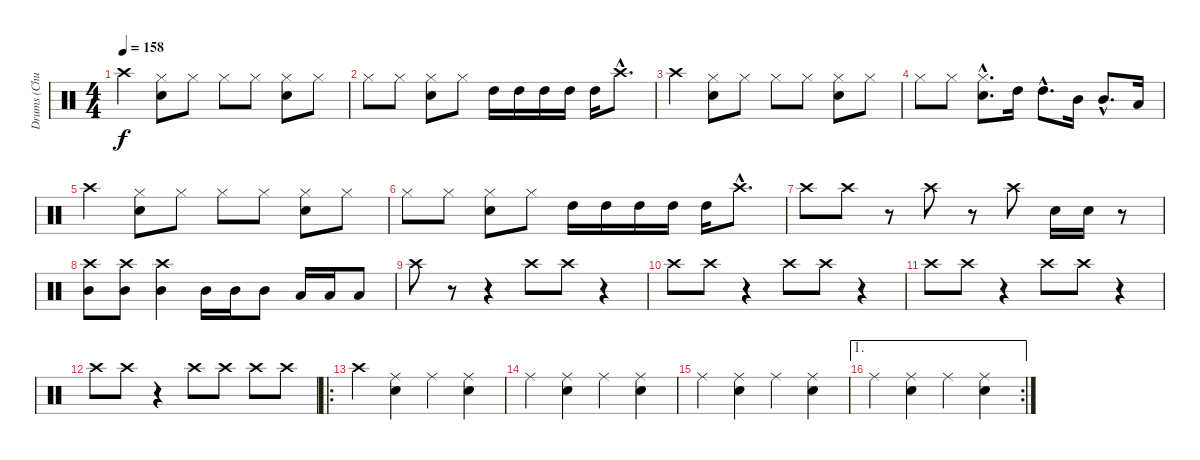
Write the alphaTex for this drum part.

\track ("Drums (Chuck Behler)" "Drums (Chu") {instrument percussion}
\staff {score}
\articulation defaults
\ts (4 4)
\tempo 158
\clef neutral
\ks c "Crash high (hit)".4{dy f}
("Hi-Hat (closed)" "Snare (hit) 2").8 "Hi-Hat (closed)".8 "Hi-Hat (closed)".8 "Hi-Hat (closed)".8 ("Hi-Hat (closed)" "Snare (hit) 2").8 "Hi-Hat (closed)".8 |
"Hi-Hat (closed)".8 "Hi-Hat (closed)".8 ("Hi-Hat (closed)" "Snare (hit) 2").8 "Hi-Hat (closed)".8 "High Tom (hit)".16 "High Tom (hit)".16 "High Tom (hit)".16 "High Tom (hit)".16 "High Tom (hit)".16 "Crash high (hit)"{hac}.8{d} |
"Crash high (hit)".4 ("Hi-Hat (closed)" "Snare (hit) 2").8 "Hi-Hat (closed)".8 "Hi-Hat (closed)".8 "Hi-Hat (closed)".8 ("Hi-Hat (closed)" "Snare (hit) 2").8 "Hi-Hat (closed)".8 |
"Hi-Hat (closed)".8 "Hi-Hat (closed)".8 ("Hi-Hat (closed)"{hac} "Snare (hit) 2"{hac}).8{d} "High Tom (hit)".16 "High Tom (hit)"{hac}.8{d} "Mid Tom (hit)".16 "Mid Tom (hit)"{hac}.8{d} "Low Tom (hit)".16 |
"Crash high (hit)".4 ("Hi-Hat (closed)" "Snare (hit) 2").8 "Hi-Hat (closed)".8 "Hi-Hat (closed)".8 "Hi-Hat (closed)".8 ("Hi-Hat (closed)" "Snare (hit) 2").8 "Hi-Hat (closed)".8 |
"Hi-Hat (closed)".8 "Hi-Hat (closed)".8 ("Hi-Hat (closed)" "Snare (hit) 2").8 "Hi-Hat (closed)".8 "High Tom (hit)".16 "High Tom (hit)".16 "High Tom (hit)".16 "High Tom (hit)".16 "High Tom (hit)".16 "Crash high (hit)"{hac}.8{d} |
"Crash high (hit)".8 "Crash high (hit)".8 r.8 "Crash high (hit)".8 r.8 "Crash high (hit)".8 "Snare (hit) 2".16 "Snare (hit) 2".16 r.8 |
("Crash high (hit)" "Mid Tom (hit)").8 ("Crash high (hit)" "Mid Tom (hit)").8 ("Crash high (hit)" "Mid Tom (hit)").4 "Mid Tom (hit)".16 "Mid Tom (hit)".16 "Mid Tom (hit)".8 "Low Tom (hit)".16 "Low Tom (hit)".16 "Low Tom (hit)".8 |
"Crash high (hit)".8 r.8 r.4 "Crash high (hit)".8 "Crash high (hit)".8 r.4 |
"Crash high (hit)".8 "Crash high (hit)".8 r.4 "Crash high (hit)".8 "Crash high (hit)".8 r.4 |
"Crash high (hit)".8 "Crash high (hit)".8 r.4 "Crash high (hit)".8 "Crash high (hit)".8 r.4 |
"Crash high (hit)".8 "Crash high (hit)".8 r.4 "Crash high (hit)".8 "Crash high (hit)".8 "Crash high (hit)".8 "Crash high (hit)".8 |
\ro "Crash high (hit)".4
("Ride (middle)" "Snare (hit) 2").4 "Ride (middle)".4 ("Ride (middle)" "Snare (hit) 2").4 |
"Ride (middle)".4 ("Ride (middle)" "Snare (hit) 2").4 "Ride (middle)".4 ("Ride (middle)" "Snare (hit) 2").4 |
"Ride (middle)".4 ("Ride (middle)" "Snare (hit) 2").4 "Ride (middle)".4 ("Ride (middle)" "Snare (hit) 2").4 |
\ae 1
\rc 2 "Ride (middle)".4
("Ride (middle)" "Snare (hit) 2").4 "Ride (middle)".4 ("Ride (middle)" "Snare (hit) 2").4
